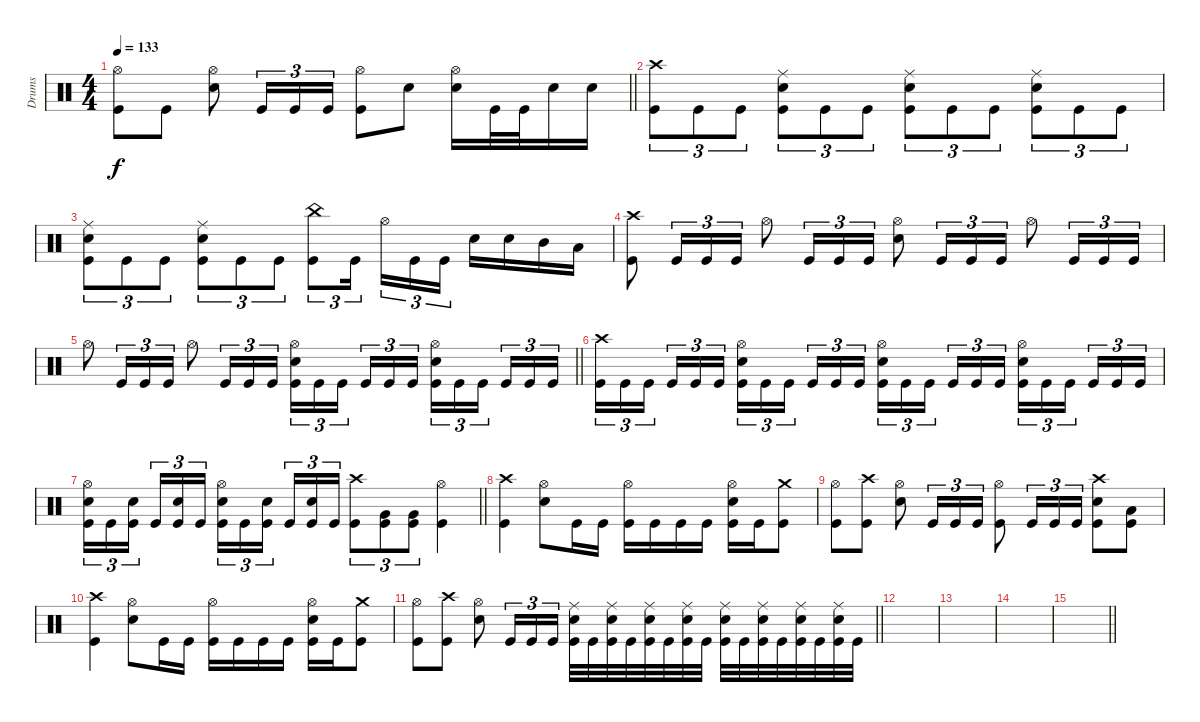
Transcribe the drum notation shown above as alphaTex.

\track ("Drums" "Drums") {instrument percussion}
\staff
\articulation defaults
\ts (4 4)
\tempo 133
\clef neutral
\barLineRight lightlight
\ks c
("Hi-Hat (open)" "Kick (hit)").8{dy f} "Kick (hit)".8 ("Hi-Hat (open)" "Electric Snare (hit)").8 "Kick (hit)".16{tu (3 2)} "Kick (hit)".16{tu (3 2)} "Kick (hit)".16{tu (3 2)} ("Hi-Hat (open)" "Kick (hit)").8 "Electric Snare (hit)".8 ("Hi-Hat (open)" "Electric Snare (hit)").16 "Kick (hit)".32 "Kick (hit)".32 "Electric Snare (hit)".16 "Electric Snare (hit)".16 |
\section ("" "")
("Crash high (hit)" "Kick (hit)").8{tu (3 2)} "Kick (hit)".8{tu (3 2)} "Kick (hit)".8{tu (3 2)} ("Ride (middle)" "Electric Snare (hit)" "Kick (hit)").8{tu (3 2)} "Kick (hit)".8{tu (3 2)} "Kick (hit)".8{tu (3 2)} ("Ride (middle)" "Electric Snare (hit)" "Kick (hit)").8{tu (3 2)} "Kick (hit)".8{tu (3 2)} "Kick (hit)".8{tu (3 2)} ("Ride (middle)" "Electric Snare (hit)" "Kick (hit)").8{tu (3 2)} "Kick (hit)".8{tu (3 2)} "Kick (hit)".8{tu (3 2)} |
("Ride (middle)" "Electric Snare (hit)" "Kick (hit)").8{tu (3 2)} "Kick (hit)".8{tu (3 2)} "Kick (hit)".8{tu (3 2)} ("Ride (middle)" "Electric Snare (hit)" "Kick (hit)").8{tu (3 2)} "Kick (hit)".8{tu (3 2)} "Kick (hit)".8{tu (3 2)} ("China (hit)" "Kick (hit)").8{tu (3 2)} "Kick (hit)".16{tu (3 2) beam splitsecondary} "Hi-Hat (open)".16{tu (3 2)} "Kick (hit)".16{tu (3 2)} "Kick (hit)".16{tu (3 2)} "Electric Snare (hit)".16 "Electric Snare (hit)".16 "Mid Tom (hit)".16 "Low Tom (hit)".16 |
("Crash high (hit)" "Kick (hit)").8 "Kick (hit)".16{tu (3 2)} "Kick (hit)".16{tu (3 2)} "Kick (hit)".16{tu (3 2)} "Hi-Hat (open)".8 "Kick (hit)".16{tu (3 2)} "Kick (hit)".16{tu (3 2)} "Kick (hit)".16{tu (3 2)} ("Hi-Hat (open)" "Electric Snare (hit)").8 "Kick (hit)".16{tu (3 2)} "Kick (hit)".16{tu (3 2)} "Kick (hit)".16{tu (3 2)} "Hi-Hat (open)".8 "Kick (hit)".16{tu (3 2)} "Kick (hit)".16{tu (3 2)} "Kick (hit)".16{tu (3 2)} |
\barLineRight lightlight "Hi-Hat (open)".8 "Kick (hit)".16{tu (3 2)} "Kick (hit)".16{tu (3 2)} "Kick (hit)".16{tu (3 2)} "Hi-Hat (open)".8 "Kick (hit)".16{tu (3 2)} "Kick (hit)".16{tu (3 2)} "Kick (hit)".16{tu (3 2)}
("Hi-Hat (open)" "Electric Snare (hit)" "Kick (hit)").16{tu (3 2)} "Kick (hit)".16{tu (3 2)} "Kick (hit)".16{tu (3 2) beam splitsecondary} "Kick (hit)".16{tu (3 2)} "Kick (hit)".16{tu (3 2)} "Kick (hit)".16{tu (3 2)} ("Hi-Hat (open)" "Electric Snare (hit)" "Kick (hit)").16{tu (3 2)} "Kick (hit)".16{tu (3 2)} "Kick (hit)".16{tu (3 2) beam splitsecondary} "Kick (hit)".16{tu (3 2)} "Kick (hit)".16{tu (3 2)} "Kick (hit)".16{tu (3 2)} |
("Crash high (hit)" "Kick (hit)").16{tu (3 2)} "Kick (hit)".16{tu (3 2)} "Kick (hit)".16{tu (3 2) beam splitsecondary} "Kick (hit)".16{tu (3 2)} "Kick (hit)".16{tu (3 2)} "Kick (hit)".16{tu (3 2)} ("Hi-Hat (open)" "Electric Snare (hit)" "Kick (hit)").16{tu (3 2)} "Kick (hit)".16{tu (3 2)} "Kick (hit)".16{tu (3 2) beam splitsecondary} "Kick (hit)".16{tu (3 2)} "Kick (hit)".16{tu (3 2)} "Kick (hit)".16{tu (3 2)} ("Hi-Hat (open)" "Electric Snare (hit)" "Kick (hit)").16{tu (3 2)} "Kick (hit)".16{tu (3 2)} "Kick (hit)".16{tu (3 2) beam splitsecondary} "Kick (hit)".16{tu (3 2)} "Kick (hit)".16{tu (3 2)} "Kick (hit)".16{tu (3 2)} ("Hi-Hat (open)" "Electric Snare (hit)" "Kick (hit)").16{tu (3 2)} "Kick (hit)".16{tu (3 2)} "Kick (hit)".16{tu (3 2) beam splitsecondary} "Kick (hit)".16{tu (3 2)} "Kick (hit)".16{tu (3 2)} "Kick (hit)".16{tu (3 2)} |
\barLineRight lightlight
("Hi-Hat (open)" "Electric Snare (hit)" "Kick (hit)").16{tu (3 2)} "Kick (hit)".16{tu (3 2)} ("Electric Snare (hit)" "Kick (hit)").16{tu (3 2) beam splitsecondary} "Kick (hit)".16{tu (3 2)} ("Electric Snare (hit)" "Kick (hit)").16{tu (3 2)} "Kick (hit)".16{tu (3 2)} ("Hi-Hat (open)" "Electric Snare (hit)" "Kick (hit)").16{tu (3 2)} "Kick (hit)".16{tu (3 2)} ("Electric Snare (hit)" "Kick (hit)").16{tu (3 2) beam splitsecondary} "Kick (hit)".16{tu (3 2)} ("Electric Snare (hit)" "Kick (hit)").16{tu (3 2)} "Kick (hit)".16{tu (3 2)} ("Crash high (hit)" "Kick (hit)").8{tu (3 2)} ("Very Low Tom (hit)" "Kick (hit)").8{tu (3 2)} ("Very Low Tom (hit)" "Kick (hit)").8{tu (3 2)} ("Hi-Hat (open)" "Kick (hit)").4 |
\section ("" "")
("Crash high (hit)" "Kick (hit)").4 ("Hi-Hat (open)" "Electric Snare (hit)").8 "Kick (hit)".16 "Kick (hit)".16 ("Hi-Hat (open)" "Kick (hit)").16 "Kick (hit)".16 "Kick (hit)".16 "Kick (hit)".16 ("Hi-Hat (open)" "Electric Snare (hit)" "Kick (hit)").16 "Kick (hit)".16 ("Crash medium (hit)" "Kick (hit)").8 |
("Hi-Hat (open)" "Kick (hit)").8 ("Crash high (hit)" "Kick (hit)").8 ("Hi-Hat (open)" "Electric Snare (hit)").8 "Kick (hit)".16{tu (3 2)} "Kick (hit)".16{tu (3 2)} "Kick (hit)".16{tu (3 2)} ("Hi-Hat (open)" "Kick (hit)").8 "Kick (hit)".16{tu (3 2)} "Kick (hit)".16{tu (3 2)} "Kick (hit)".16{tu (3 2)} ("Crash high (hit)" "Electric Snare (hit)" "Kick (hit)").8 ("Low Floor Tom (hit)" "Kick (hit)").8 |
("Crash high (hit)" "Kick (hit)").4 ("Hi-Hat (open)" "Electric Snare (hit)").8 "Kick (hit)".16 "Kick (hit)".16 ("Hi-Hat (open)" "Kick (hit)").16 "Kick (hit)".16 "Kick (hit)".16 "Kick (hit)".16 ("Hi-Hat (open)" "Electric Snare (hit)" "Kick (hit)").16 "Kick (hit)".16 ("Crash medium (hit)" "Kick (hit)").8 |
\barLineRight lightlight
("Hi-Hat (open)" "Kick (hit)").8 ("Crash high (hit)" "Kick (hit)").8 ("Hi-Hat (open)" "Electric Snare (hit)").8 "Kick (hit)".16{tu (3 2)} "Kick (hit)".16{tu (3 2)} "Kick (hit)".16{tu (3 2)} ("Ride (middle)" "Electric Snare (hit)" "Kick (hit)").32 "Kick (hit)".32 ("Ride (middle)" "Electric Snare (hit)" "Kick (hit)").32 "Kick (hit)".32 ("Ride (middle)" "Electric Snare (hit)" "Kick (hit)").32 "Kick (hit)".32 ("Ride (middle)" "Electric Snare (hit)" "Kick (hit)").32 "Kick (hit)".32 ("Ride (middle)" "Electric Snare (hit)" "Kick (hit)").32 "Kick (hit)".32 ("Ride (middle)" "Electric Snare (hit)" "Kick (hit)").32 "Kick (hit)".32 ("Ride (middle)" "Electric Snare (hit)" "Kick (hit)").32 "Kick (hit)".32 ("Ride (middle)" "Electric Snare (hit)" "Kick (hit)").32 "Kick (hit)".32 |
|
|
|
\barLineRight lightlight
